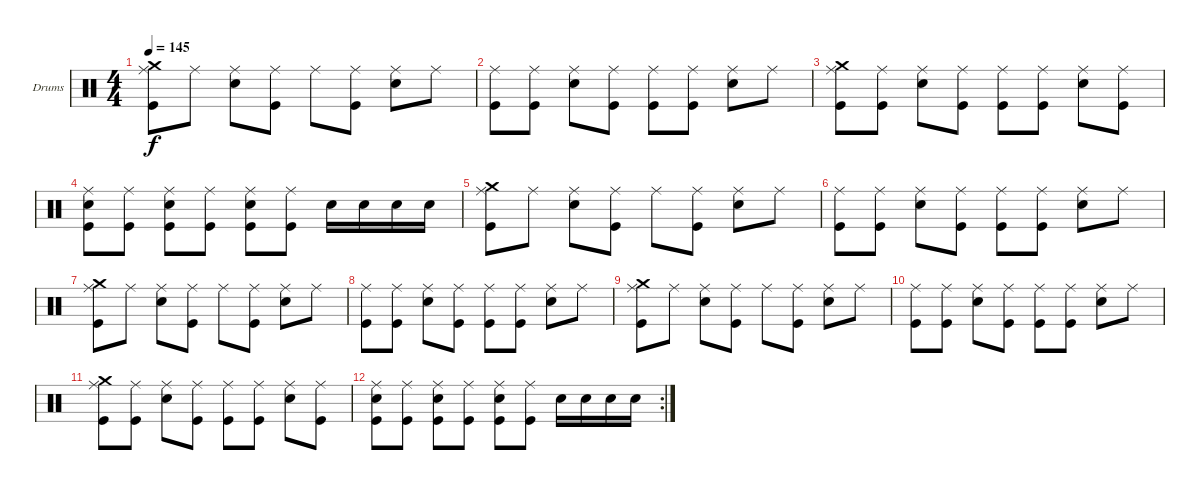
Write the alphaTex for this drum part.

\defaultSystemsLayout 4
\bracketExtendMode groupsimilarinstruments
\firstSystemTrackNameOrientation horizontal
\otherSystemsTrackNameOrientation horizontal
\track ("Nikola" "Drums") {instrument percussion}
\staff {score}
\articulation defaults
\ts (4 4)
\tempo 145
\clef neutral
\ks c
("Kick (hit)" "Ride (middle)" "Crash medium (hit)").8{dy f} "Ride (middle)".8 ("Snare (hit) 2" "Ride (middle)").8 ("Kick (hit)" "Ride (middle)").8 "Ride (middle)".8 ("Kick (hit)" "Ride (middle)").8 ("Snare (hit) 2" "Ride (middle)").8 "Ride (middle)".8 |
("Kick (hit)" "Ride (middle)").8 ("Kick (hit)" "Ride (middle)").8 ("Snare (hit) 2" "Ride (middle)").8 ("Kick (hit)" "Ride (middle)").8 ("Kick (hit)" "Ride (middle)").8 ("Kick (hit)" "Ride (middle)").8 ("Snare (hit) 2" "Ride (middle)").8 "Ride (middle)".8 |
("Crash medium (hit)" "Kick (hit)" "Ride (middle)").8 ("Ride (middle)" "Kick (hit)").8 ("Snare (hit) 2" "Ride (middle)").8 ("Kick (hit)" "Ride (middle)").8 ("Ride (middle)" "Kick (hit)").8 ("Kick (hit)" "Ride (middle)").8 ("Snare (hit) 2" "Ride (middle)").8 ("Ride (middle)" "Kick (hit)").8 |
("Kick (hit)" "Snare (hit) 2" "Ride (middle)").8 ("Kick (hit)" "Ride (middle)").8 ("Kick (hit)" "Snare (hit) 2" "Ride (middle)").8 ("Kick (hit)" "Ride (middle)").8 ("Kick (hit)" "Snare (hit) 2" "Ride (middle)").8 ("Kick (hit)" "Ride (middle)").8 "Snare (hit) 2".16 "Snare (hit) 2".16 "Snare (hit) 2".16 "Snare (hit) 2".16 |
("Kick (hit)" "Ride (middle)" "Crash medium (hit)").8 "Ride (middle)".8 ("Snare (hit) 2" "Ride (middle)").8 ("Kick (hit)" "Ride (middle)").8 "Ride (middle)".8 ("Kick (hit)" "Ride (middle)").8 ("Snare (hit) 2" "Ride (middle)").8 "Ride (middle)".8 |
("Kick (hit)" "Ride (middle)").8 ("Kick (hit)" "Ride (middle)").8 ("Snare (hit) 2" "Ride (middle)").8 ("Kick (hit)" "Ride (middle)").8 ("Kick (hit)" "Ride (middle)").8 ("Kick (hit)" "Ride (middle)").8 ("Snare (hit) 2" "Ride (middle)").8 "Ride (middle)".8 |
("Crash medium (hit)" "Kick (hit)" "Ride (middle)").8 "Ride (middle)".8 ("Snare (hit) 2" "Ride (middle)").8 ("Kick (hit)" "Ride (middle)").8 "Ride (middle)".8 ("Kick (hit)" "Ride (middle)").8 ("Snare (hit) 2" "Ride (middle)").8 "Ride (middle)".8 |
("Kick (hit)" "Ride (middle)").8 ("Kick (hit)" "Ride (middle)").8 ("Snare (hit) 2" "Ride (middle)").8 ("Kick (hit)" "Ride (middle)").8 ("Kick (hit)" "Ride (middle)").8 ("Kick (hit)" "Ride (middle)").8 ("Snare (hit) 2" "Ride (middle)").8 "Ride (middle)".8 |
("Kick (hit)" "Ride (middle)" "Crash medium (hit)").8 "Ride (middle)".8 ("Snare (hit) 2" "Ride (middle)").8 ("Kick (hit)" "Ride (middle)").8 "Ride (middle)".8 ("Kick (hit)" "Ride (middle)").8 ("Snare (hit) 2" "Ride (middle)").8 "Ride (middle)".8 |
("Kick (hit)" "Ride (middle)").8 ("Kick (hit)" "Ride (middle)").8 ("Snare (hit) 2" "Ride (middle)").8 ("Kick (hit)" "Ride (middle)").8 ("Kick (hit)" "Ride (middle)").8 ("Kick (hit)" "Ride (middle)").8 ("Snare (hit) 2" "Ride (middle)").8 "Ride (middle)".8 |
("Crash medium (hit)" "Kick (hit)" "Ride (middle)").8 ("Ride (middle)" "Kick (hit)").8 ("Snare (hit) 2" "Ride (middle)").8 ("Kick (hit)" "Ride (middle)").8 ("Ride (middle)" "Kick (hit)").8 ("Kick (hit)" "Ride (middle)").8 ("Snare (hit) 2" "Ride (middle)").8 ("Ride (middle)" "Kick (hit)").8 |
\rc 2
("Kick (hit)" "Snare (hit) 2" "Ride (middle)").8 ("Kick (hit)" "Ride (middle)").8 ("Kick (hit)" "Snare (hit) 2" "Ride (middle)").8 ("Kick (hit)" "Ride (middle)").8 ("Kick (hit)" "Snare (hit) 2" "Ride (middle)").8 ("Kick (hit)" "Ride (middle)").8 "Snare (hit) 2".16 "Snare (hit) 2".16 "Snare (hit) 2".16 "Snare (hit) 2".16
